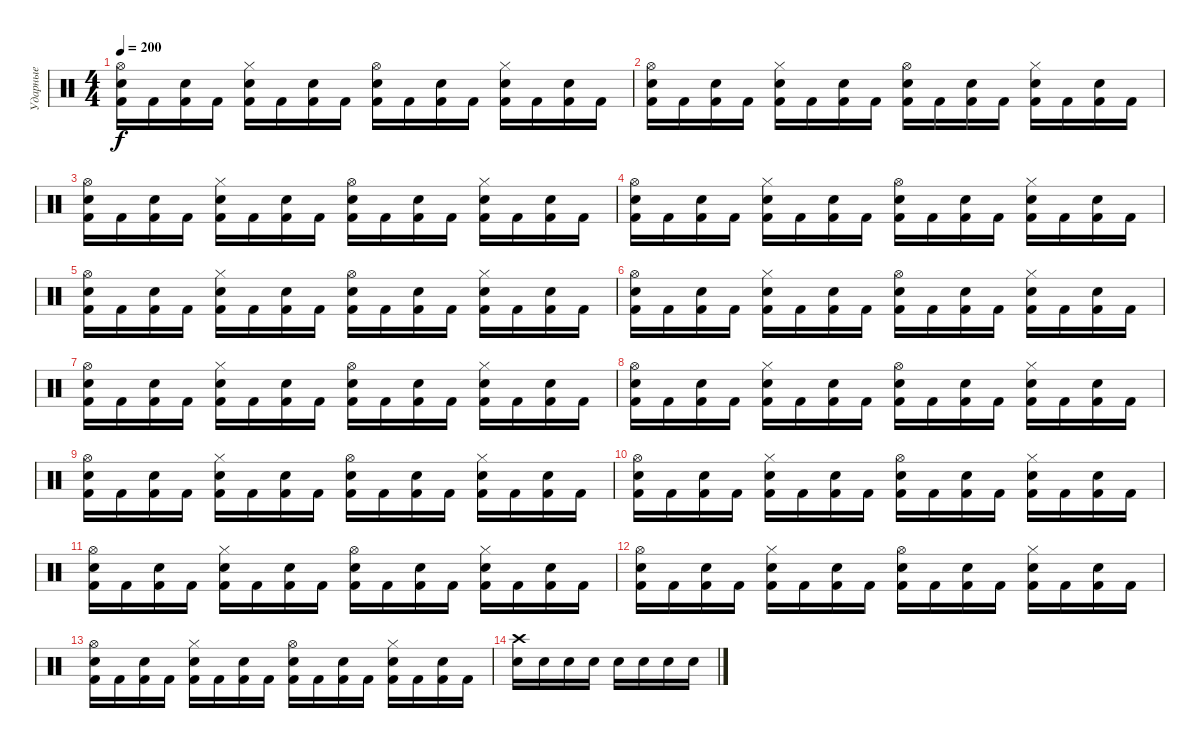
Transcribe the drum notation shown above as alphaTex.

\track ("Ударные" "Ударные") {instrument percussion}
\staff {score}
\articulation defaults
\ts (4 4)
\tempo 200
\clef neutral
\ks c
("Kick (hit) 2" "Snare (hit) 2" "Hi-Hat (open)").16{dy f} "Kick (hit) 2".16 ("Kick (hit) 2" "Snare (hit) 2").16 "Kick (hit) 2".16 ("Kick (hit) 2" "Hi-Hat (closed)" "Snare (hit) 2").16 "Kick (hit) 2".16 ("Kick (hit) 2" "Snare (hit) 2").16 "Kick (hit) 2".16 ("Kick (hit) 2" "Snare (hit) 2" "Hi-Hat (open)").16 "Kick (hit) 2".16 ("Kick (hit) 2" "Snare (hit) 2").16 "Kick (hit) 2".16 ("Kick (hit) 2" "Hi-Hat (closed)" "Snare (hit) 2").16 "Kick (hit) 2".16 ("Kick (hit) 2" "Snare (hit) 2").16 "Kick (hit) 2".16 |
("Kick (hit) 2" "Snare (hit) 2" "Hi-Hat (open)").16 "Kick (hit) 2".16 ("Kick (hit) 2" "Snare (hit) 2").16 "Kick (hit) 2".16 ("Kick (hit) 2" "Hi-Hat (closed)" "Snare (hit) 2").16 "Kick (hit) 2".16 ("Kick (hit) 2" "Snare (hit) 2").16 "Kick (hit) 2".16 ("Kick (hit) 2" "Snare (hit) 2" "Hi-Hat (open)").16 "Kick (hit) 2".16 ("Kick (hit) 2" "Snare (hit) 2").16 "Kick (hit) 2".16 ("Kick (hit) 2" "Hi-Hat (closed)" "Snare (hit) 2").16 "Kick (hit) 2".16 ("Kick (hit) 2" "Snare (hit) 2").16 "Kick (hit) 2".16 |
("Kick (hit) 2" "Snare (hit) 2" "Hi-Hat (open)").16 "Kick (hit) 2".16 ("Kick (hit) 2" "Snare (hit) 2").16 "Kick (hit) 2".16 ("Kick (hit) 2" "Hi-Hat (closed)" "Snare (hit) 2").16 "Kick (hit) 2".16 ("Kick (hit) 2" "Snare (hit) 2").16 "Kick (hit) 2".16 ("Kick (hit) 2" "Snare (hit) 2" "Hi-Hat (open)").16 "Kick (hit) 2".16 ("Kick (hit) 2" "Snare (hit) 2").16 "Kick (hit) 2".16 ("Kick (hit) 2" "Hi-Hat (closed)" "Snare (hit) 2").16 "Kick (hit) 2".16 ("Kick (hit) 2" "Snare (hit) 2").16 "Kick (hit) 2".16 |
("Kick (hit) 2" "Snare (hit) 2" "Hi-Hat (open)").16 "Kick (hit) 2".16 ("Kick (hit) 2" "Snare (hit) 2").16 "Kick (hit) 2".16 ("Kick (hit) 2" "Hi-Hat (closed)" "Snare (hit) 2").16 "Kick (hit) 2".16 ("Kick (hit) 2" "Snare (hit) 2").16 "Kick (hit) 2".16 ("Kick (hit) 2" "Snare (hit) 2" "Hi-Hat (open)").16 "Kick (hit) 2".16 ("Kick (hit) 2" "Snare (hit) 2").16 "Kick (hit) 2".16 ("Kick (hit) 2" "Hi-Hat (closed)" "Snare (hit) 2").16 "Kick (hit) 2".16 ("Kick (hit) 2" "Snare (hit) 2").16 "Kick (hit) 2".16 |
("Kick (hit) 2" "Snare (hit) 2" "Hi-Hat (open)").16 "Kick (hit) 2".16 ("Kick (hit) 2" "Snare (hit) 2").16 "Kick (hit) 2".16 ("Kick (hit) 2" "Hi-Hat (closed)" "Snare (hit) 2").16 "Kick (hit) 2".16 ("Kick (hit) 2" "Snare (hit) 2").16 "Kick (hit) 2".16 ("Kick (hit) 2" "Snare (hit) 2" "Hi-Hat (open)").16 "Kick (hit) 2".16 ("Kick (hit) 2" "Snare (hit) 2").16 "Kick (hit) 2".16 ("Kick (hit) 2" "Hi-Hat (closed)" "Snare (hit) 2").16 "Kick (hit) 2".16 ("Kick (hit) 2" "Snare (hit) 2").16 "Kick (hit) 2".16 |
("Kick (hit) 2" "Snare (hit) 2" "Hi-Hat (open)").16 "Kick (hit) 2".16 ("Kick (hit) 2" "Snare (hit) 2").16 "Kick (hit) 2".16 ("Kick (hit) 2" "Hi-Hat (closed)" "Snare (hit) 2").16 "Kick (hit) 2".16 ("Kick (hit) 2" "Snare (hit) 2").16 "Kick (hit) 2".16 ("Kick (hit) 2" "Snare (hit) 2" "Hi-Hat (open)").16 "Kick (hit) 2".16 ("Kick (hit) 2" "Snare (hit) 2").16 "Kick (hit) 2".16 ("Kick (hit) 2" "Hi-Hat (closed)" "Snare (hit) 2").16 "Kick (hit) 2".16 ("Kick (hit) 2" "Snare (hit) 2").16 "Kick (hit) 2".16 |
("Kick (hit) 2" "Snare (hit) 2" "Hi-Hat (open)").16 "Kick (hit) 2".16 ("Kick (hit) 2" "Snare (hit) 2").16 "Kick (hit) 2".16 ("Kick (hit) 2" "Hi-Hat (closed)" "Snare (hit) 2").16 "Kick (hit) 2".16 ("Kick (hit) 2" "Snare (hit) 2").16 "Kick (hit) 2".16 ("Kick (hit) 2" "Snare (hit) 2" "Hi-Hat (open)").16 "Kick (hit) 2".16 ("Kick (hit) 2" "Snare (hit) 2").16 "Kick (hit) 2".16 ("Kick (hit) 2" "Hi-Hat (closed)" "Snare (hit) 2").16 "Kick (hit) 2".16 ("Kick (hit) 2" "Snare (hit) 2").16 "Kick (hit) 2".16 |
("Kick (hit) 2" "Snare (hit) 2" "Hi-Hat (open)").16 "Kick (hit) 2".16 ("Kick (hit) 2" "Snare (hit) 2").16 "Kick (hit) 2".16 ("Kick (hit) 2" "Hi-Hat (closed)" "Snare (hit) 2").16 "Kick (hit) 2".16 ("Kick (hit) 2" "Snare (hit) 2").16 "Kick (hit) 2".16 ("Kick (hit) 2" "Snare (hit) 2" "Hi-Hat (open)").16 "Kick (hit) 2".16 ("Kick (hit) 2" "Snare (hit) 2").16 "Kick (hit) 2".16 ("Kick (hit) 2" "Hi-Hat (closed)" "Snare (hit) 2").16 "Kick (hit) 2".16 ("Kick (hit) 2" "Snare (hit) 2").16 "Kick (hit) 2".16 |
("Kick (hit) 2" "Snare (hit) 2" "Hi-Hat (open)").16 "Kick (hit) 2".16 ("Kick (hit) 2" "Snare (hit) 2").16 "Kick (hit) 2".16 ("Kick (hit) 2" "Hi-Hat (closed)" "Snare (hit) 2").16 "Kick (hit) 2".16 ("Kick (hit) 2" "Snare (hit) 2").16 "Kick (hit) 2".16 ("Kick (hit) 2" "Snare (hit) 2" "Hi-Hat (open)").16 "Kick (hit) 2".16 ("Kick (hit) 2" "Snare (hit) 2").16 "Kick (hit) 2".16 ("Kick (hit) 2" "Hi-Hat (closed)" "Snare (hit) 2").16 "Kick (hit) 2".16 ("Kick (hit) 2" "Snare (hit) 2").16 "Kick (hit) 2".16 |
("Kick (hit) 2" "Snare (hit) 2" "Hi-Hat (open)").16 "Kick (hit) 2".16 ("Kick (hit) 2" "Snare (hit) 2").16 "Kick (hit) 2".16 ("Kick (hit) 2" "Hi-Hat (closed)" "Snare (hit) 2").16 "Kick (hit) 2".16 ("Kick (hit) 2" "Snare (hit) 2").16 "Kick (hit) 2".16 ("Kick (hit) 2" "Snare (hit) 2" "Hi-Hat (open)").16 "Kick (hit) 2".16 ("Kick (hit) 2" "Snare (hit) 2").16 "Kick (hit) 2".16 ("Kick (hit) 2" "Hi-Hat (closed)" "Snare (hit) 2").16 "Kick (hit) 2".16 ("Kick (hit) 2" "Snare (hit) 2").16 "Kick (hit) 2".16 |
("Kick (hit) 2" "Snare (hit) 2" "Hi-Hat (open)").16 "Kick (hit) 2".16 ("Kick (hit) 2" "Snare (hit) 2").16 "Kick (hit) 2".16 ("Kick (hit) 2" "Hi-Hat (closed)" "Snare (hit) 2").16 "Kick (hit) 2".16 ("Kick (hit) 2" "Snare (hit) 2").16 "Kick (hit) 2".16 ("Kick (hit) 2" "Snare (hit) 2" "Hi-Hat (open)").16 "Kick (hit) 2".16 ("Kick (hit) 2" "Snare (hit) 2").16 "Kick (hit) 2".16 ("Kick (hit) 2" "Hi-Hat (closed)" "Snare (hit) 2").16 "Kick (hit) 2".16 ("Kick (hit) 2" "Snare (hit) 2").16 "Kick (hit) 2".16 |
("Kick (hit) 2" "Snare (hit) 2" "Hi-Hat (open)").16 "Kick (hit) 2".16 ("Kick (hit) 2" "Snare (hit) 2").16 "Kick (hit) 2".16 ("Kick (hit) 2" "Hi-Hat (closed)" "Snare (hit) 2").16 "Kick (hit) 2".16 ("Kick (hit) 2" "Snare (hit) 2").16 "Kick (hit) 2".16 ("Kick (hit) 2" "Snare (hit) 2" "Hi-Hat (open)").16 "Kick (hit) 2".16 ("Kick (hit) 2" "Snare (hit) 2").16 "Kick (hit) 2".16 ("Kick (hit) 2" "Hi-Hat (closed)" "Snare (hit) 2").16 "Kick (hit) 2".16 ("Kick (hit) 2" "Snare (hit) 2").16 "Kick (hit) 2".16 |
("Kick (hit) 2" "Snare (hit) 2" "Hi-Hat (open)").16 "Kick (hit) 2".16 ("Kick (hit) 2" "Snare (hit) 2").16 "Kick (hit) 2".16 ("Kick (hit) 2" "Hi-Hat (closed)" "Snare (hit) 2").16 "Kick (hit) 2".16 ("Kick (hit) 2" "Snare (hit) 2").16 "Kick (hit) 2".16 ("Kick (hit) 2" "Snare (hit) 2" "Hi-Hat (open)").16 "Kick (hit) 2".16 ("Kick (hit) 2" "Snare (hit) 2").16 "Kick (hit) 2".16 ("Kick (hit) 2" "Hi-Hat (closed)" "Snare (hit) 2").16 "Kick (hit) 2".16 ("Kick (hit) 2" "Snare (hit) 2").16 "Kick (hit) 2".16 |
("Crash high (hit)" "Snare (hit) 2").16 "Snare (hit) 2".16 "Snare (hit) 2".16 "Snare (hit) 2".16 "Snare (hit) 2".16 "Snare (hit) 2".16 "Snare (hit) 2".16 "Snare (hit) 2".16
